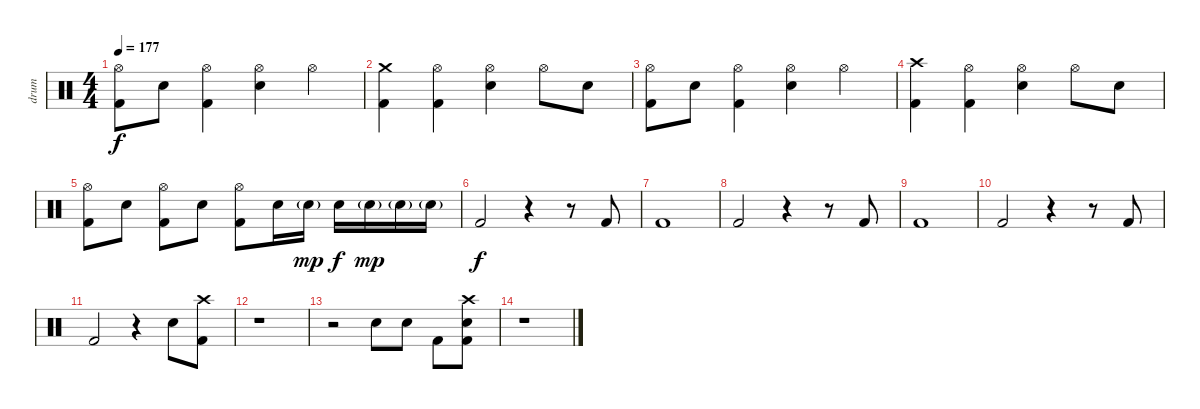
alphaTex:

\track ("drum" "drum") {instrument percussion}
\staff {score}
\articulation defaults
\ts (4 4)
\tempo 177
\clef neutral
\ks c
("Hi-Hat (open)" "Kick (hit) 2").8{dy f} "Electric Snare (hit)".8 ("Hi-Hat (open)" "Kick (hit) 2").4 ("Hi-Hat (open)" "Electric Snare (hit)").4 "Hi-Hat (open)".4 |
("Crash medium (hit)" "Kick (hit) 2").4 ("Hi-Hat (open)" "Kick (hit) 2").4 ("Hi-Hat (open)" "Electric Snare (hit)").4 "Hi-Hat (open)".8 "Electric Snare (hit)".8 |
("Hi-Hat (open)" "Kick (hit) 2").8 "Electric Snare (hit)".8 ("Hi-Hat (open)" "Kick (hit) 2").4 ("Hi-Hat (open)" "Electric Snare (hit)").4 "Hi-Hat (open)".4 |
("Crash high (hit)" "Kick (hit) 2").4 ("Hi-Hat (open)" "Kick (hit) 2").4 ("Hi-Hat (open)" "Electric Snare (hit)").4 "Hi-Hat (open)".8 "Electric Snare (hit)".8 |
("Hi-Hat (open)" "Kick (hit) 2").8 "Electric Snare (hit)".8 ("Hi-Hat (open)" "Kick (hit) 2").8 "Electric Snare (hit)".8 ("Hi-Hat (open)" "Kick (hit) 2").8 "Electric Snare (hit)".16 "Electric Snare (hit)"{g}.16{dy mp} "Electric Snare (hit)".16{dy f} "Electric Snare (hit)"{g}.16{dy mp} "Electric Snare (hit)"{g}.16 "Electric Snare (hit)"{g}.16 |
\section ("" "")
"Kick (hit) 2".2{dy f} r.4 r.8 "Kick (hit) 2".8 |
"Kick (hit) 2".1 |
"Kick (hit) 2".2 r.4 r.8 "Kick (hit) 2".8 |
"Kick (hit) 2".1 |
"Kick (hit) 2".2 r.4 r.8 "Kick (hit) 2".8 |
"Kick (hit) 2".2 r.4 "Electric Snare (hit)".8 ("Crash high (hit)" "Kick (hit) 2").8 |
r.1 |
r.2 "Electric Snare (hit)".8 "Electric Snare (hit)".8 "Kick (hit) 2".8 ("Crash high (hit)" "Electric Snare (hit)" "Kick (hit) 2").8 |
r.1
